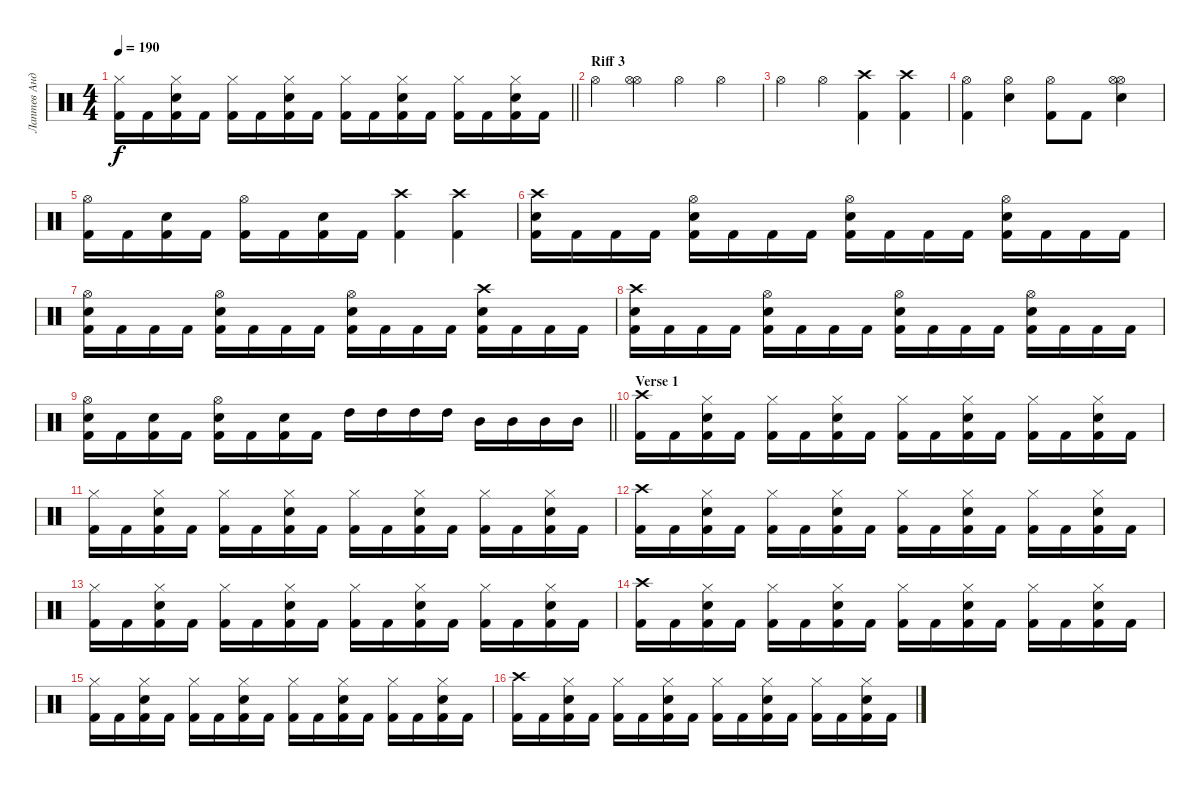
\track ("Лаптев Андрей" "Лаптев Анд") {instrument percussion}
\staff {score}
\articulation defaults
\ts (4 4)
\tempo 190
\clef neutral
\barLineRight lightlight
\ks c
("Hi-Hat (closed)" "Kick (hit) 2").16{dy f} "Kick (hit) 2".16 ("Electric Snare (hit)" "Hi-Hat (closed)" "Kick (hit) 2").16 "Kick (hit) 2".16 ("Hi-Hat (closed)" "Kick (hit) 2").16 "Kick (hit) 2".16 ("Hi-Hat (closed)" "Electric Snare (hit)" "Kick (hit) 2").16 "Kick (hit) 2".16 ("Hi-Hat (closed)" "Kick (hit) 2").16 "Kick (hit) 2".16 ("Hi-Hat (closed)" "Electric Snare (hit)" "Kick (hit) 2").16 "Kick (hit) 2".16 ("Hi-Hat (closed)" "Kick (hit) 2").16 "Kick (hit) 2".16 ("Hi-Hat (closed)" "Electric Snare (hit)" "Kick (hit) 2").16 "Kick (hit) 2".16 |
\section ("" "Riff 3")
"Hi-Hat (open)".4 ("Hi-Hat (open)" "Hi-Hat (open)").4 "Hi-Hat (open)".4 "Hi-Hat (open)".4 |
"Hi-Hat (open)".4 "Hi-Hat (open)".4 ("Crash high (hit)" "Kick (hit) 2").4 ("Crash high (hit)" "Kick (hit) 2").4 |
("Hi-Hat (open)" "Kick (hit) 2").4 ("Hi-Hat (open)" "Electric Snare (hit)").4 ("Hi-Hat (open)" "Kick (hit) 2").8 "Kick (hit) 2".8 ("Electric Snare (hit)" "Hi-Hat (open)" "Hi-Hat (open)").4 |
("Hi-Hat (open)" "Kick (hit) 2").16 "Kick (hit) 2".16 ("Electric Snare (hit)" "Kick (hit) 2").16 "Kick (hit) 2".16 ("Hi-Hat (open)" "Kick (hit) 2").16 "Kick (hit) 2".16 ("Electric Snare (hit)" "Kick (hit) 2").16 "Kick (hit) 2".16 ("Crash high (hit)" "Kick (hit) 2").4 ("Crash high (hit)" "Kick (hit) 2").4 |
("Electric Snare (hit)" "Crash high (hit)" "Kick (hit) 2").16 "Kick (hit) 2".16 "Kick (hit) 2".16 "Kick (hit) 2".16 ("Hi-Hat (open)" "Electric Snare (hit)" "Kick (hit) 2").16 "Kick (hit) 2".16 "Kick (hit) 2".16 "Kick (hit) 2".16 ("Electric Snare (hit)" "Hi-Hat (open)" "Kick (hit) 2").16 "Kick (hit) 2".16 "Kick (hit) 2".16 "Kick (hit) 2".16 ("Electric Snare (hit)" "Hi-Hat (open)" "Kick (hit) 2").16 "Kick (hit) 2".16 "Kick (hit) 2".16 "Kick (hit) 2".16 |
("Electric Snare (hit)" "Hi-Hat (open)" "Kick (hit) 2").16 "Kick (hit) 2".16 "Kick (hit) 2".16 "Kick (hit) 2".16 ("Electric Snare (hit)" "Hi-Hat (open)" "Kick (hit) 2").16 "Kick (hit) 2".16 "Kick (hit) 2".16 "Kick (hit) 2".16 ("Electric Snare (hit)" "Hi-Hat (open)" "Kick (hit) 2").16 "Kick (hit) 2".16 "Kick (hit) 2".16 "Kick (hit) 2".16 ("Electric Snare (hit)" "Crash high (hit)" "Kick (hit) 2").16 "Kick (hit) 2".16 "Kick (hit) 2".16 "Kick (hit) 2".16 |
("Electric Snare (hit)" "Crash high (hit)" "Kick (hit) 2").16 "Kick (hit) 2".16 "Kick (hit) 2".16 "Kick (hit) 2".16 ("Electric Snare (hit)" "Hi-Hat (open)" "Kick (hit) 2").16 "Kick (hit) 2".16 "Kick (hit) 2".16 "Kick (hit) 2".16 ("Electric Snare (hit)" "Hi-Hat (open)" "Kick (hit) 2").16 "Kick (hit) 2".16 "Kick (hit) 2".16 "Kick (hit) 2".16 ("Electric Snare (hit)" "Hi-Hat (open)" "Kick (hit) 2").16 "Kick (hit) 2".16 "Kick (hit) 2".16 "Kick (hit) 2".16 |
\barLineRight lightlight
("Electric Snare (hit)" "Hi-Hat (open)" "Kick (hit) 2").16 "Kick (hit) 2".16 ("Electric Snare (hit)" "Kick (hit) 2").16 "Kick (hit) 2".16 ("Electric Snare (hit)" "Hi-Hat (open)" "Kick (hit) 2").16 "Kick (hit) 2".16 ("Electric Snare (hit)" "Kick (hit) 2").16 "Kick (hit) 2".16 "High Tom (hit)".16 "High Tom (hit)".16 "High Tom (hit)".16 "High Tom (hit)".16 "Mid Tom (hit)".16 "Mid Tom (hit)".16 "Mid Tom (hit)".16 "Mid Tom (hit)".16 |
\section ("" "Verse 1")
("Crash high (hit)" "Kick (hit) 2").16 "Kick (hit) 2".16 ("Electric Snare (hit)" "Hi-Hat (closed)" "Kick (hit) 2").16 "Kick (hit) 2".16 ("Hi-Hat (closed)" "Kick (hit) 2").16 "Kick (hit) 2".16 ("Electric Snare (hit)" "Hi-Hat (closed)" "Kick (hit) 2").16 "Kick (hit) 2".16 ("Hi-Hat (closed)" "Kick (hit) 2").16 "Kick (hit) 2".16 ("Hi-Hat (closed)" "Electric Snare (hit)" "Kick (hit) 2").16 "Kick (hit) 2".16 ("Hi-Hat (closed)" "Kick (hit) 2").16 "Kick (hit) 2".16 ("Hi-Hat (closed)" "Electric Snare (hit)" "Kick (hit) 2").16 "Kick (hit) 2".16 |
("Hi-Hat (closed)" "Kick (hit) 2").16 "Kick (hit) 2".16 ("Electric Snare (hit)" "Hi-Hat (closed)" "Kick (hit) 2").16 "Kick (hit) 2".16 ("Hi-Hat (closed)" "Kick (hit) 2").16 "Kick (hit) 2".16 ("Electric Snare (hit)" "Hi-Hat (closed)" "Kick (hit) 2").16 "Kick (hit) 2".16 ("Hi-Hat (closed)" "Kick (hit) 2").16 "Kick (hit) 2".16 ("Electric Snare (hit)" "Hi-Hat (closed)" "Kick (hit) 2").16 "Kick (hit) 2".16 ("Hi-Hat (closed)" "Kick (hit) 2").16 "Kick (hit) 2".16 ("Electric Snare (hit)" "Hi-Hat (closed)" "Kick (hit) 2").16 "Kick (hit) 2".16 |
("Crash high (hit)" "Kick (hit) 2").16 "Kick (hit) 2".16 ("Electric Snare (hit)" "Hi-Hat (closed)" "Kick (hit) 2").16 "Kick (hit) 2".16 ("Hi-Hat (closed)" "Kick (hit) 2").16 "Kick (hit) 2".16 ("Electric Snare (hit)" "Hi-Hat (closed)" "Kick (hit) 2").16 "Kick (hit) 2".16 ("Hi-Hat (closed)" "Kick (hit) 2").16 "Kick (hit) 2".16 ("Hi-Hat (closed)" "Electric Snare (hit)" "Kick (hit) 2").16 "Kick (hit) 2".16 ("Hi-Hat (closed)" "Kick (hit) 2").16 "Kick (hit) 2".16 ("Hi-Hat (closed)" "Electric Snare (hit)" "Kick (hit) 2").16 "Kick (hit) 2".16 |
("Hi-Hat (closed)" "Kick (hit) 2").16 "Kick (hit) 2".16 ("Electric Snare (hit)" "Hi-Hat (closed)" "Kick (hit) 2").16 "Kick (hit) 2".16 ("Hi-Hat (closed)" "Kick (hit) 2").16 "Kick (hit) 2".16 ("Electric Snare (hit)" "Hi-Hat (closed)" "Kick (hit) 2").16 "Kick (hit) 2".16 ("Hi-Hat (closed)" "Kick (hit) 2").16 "Kick (hit) 2".16 ("Electric Snare (hit)" "Hi-Hat (closed)" "Kick (hit) 2").16 "Kick (hit) 2".16 ("Hi-Hat (closed)" "Kick (hit) 2").16 "Kick (hit) 2".16 ("Electric Snare (hit)" "Hi-Hat (closed)" "Kick (hit) 2").16 "Kick (hit) 2".16 |
("Crash high (hit)" "Kick (hit) 2").16 "Kick (hit) 2".16 ("Electric Snare (hit)" "Hi-Hat (closed)" "Kick (hit) 2").16 "Kick (hit) 2".16 ("Hi-Hat (closed)" "Kick (hit) 2").16 "Kick (hit) 2".16 ("Electric Snare (hit)" "Hi-Hat (closed)" "Kick (hit) 2").16 "Kick (hit) 2".16 ("Hi-Hat (closed)" "Kick (hit) 2").16 "Kick (hit) 2".16 ("Hi-Hat (closed)" "Electric Snare (hit)" "Kick (hit) 2").16 "Kick (hit) 2".16 ("Hi-Hat (closed)" "Kick (hit) 2").16 "Kick (hit) 2".16 ("Hi-Hat (closed)" "Electric Snare (hit)" "Kick (hit) 2").16 "Kick (hit) 2".16 |
("Hi-Hat (closed)" "Kick (hit) 2").16 "Kick (hit) 2".16 ("Electric Snare (hit)" "Hi-Hat (closed)" "Kick (hit) 2").16 "Kick (hit) 2".16 ("Hi-Hat (closed)" "Kick (hit) 2").16 "Kick (hit) 2".16 ("Electric Snare (hit)" "Hi-Hat (closed)" "Kick (hit) 2").16 "Kick (hit) 2".16 ("Hi-Hat (closed)" "Kick (hit) 2").16 "Kick (hit) 2".16 ("Electric Snare (hit)" "Hi-Hat (closed)" "Kick (hit) 2").16 "Kick (hit) 2".16 ("Hi-Hat (closed)" "Kick (hit) 2").16 "Kick (hit) 2".16 ("Electric Snare (hit)" "Hi-Hat (closed)" "Kick (hit) 2").16 "Kick (hit) 2".16 |
("Crash high (hit)" "Kick (hit) 2").16 "Kick (hit) 2".16 ("Electric Snare (hit)" "Hi-Hat (closed)" "Kick (hit) 2").16 "Kick (hit) 2".16 ("Hi-Hat (closed)" "Kick (hit) 2").16 "Kick (hit) 2".16 ("Electric Snare (hit)" "Hi-Hat (closed)" "Kick (hit) 2").16 "Kick (hit) 2".16 ("Hi-Hat (closed)" "Kick (hit) 2").16 "Kick (hit) 2".16 ("Hi-Hat (closed)" "Electric Snare (hit)" "Kick (hit) 2").16 "Kick (hit) 2".16 ("Hi-Hat (closed)" "Kick (hit) 2").16 "Kick (hit) 2".16 ("Hi-Hat (closed)" "Electric Snare (hit)" "Kick (hit) 2").16 "Kick (hit) 2".16
